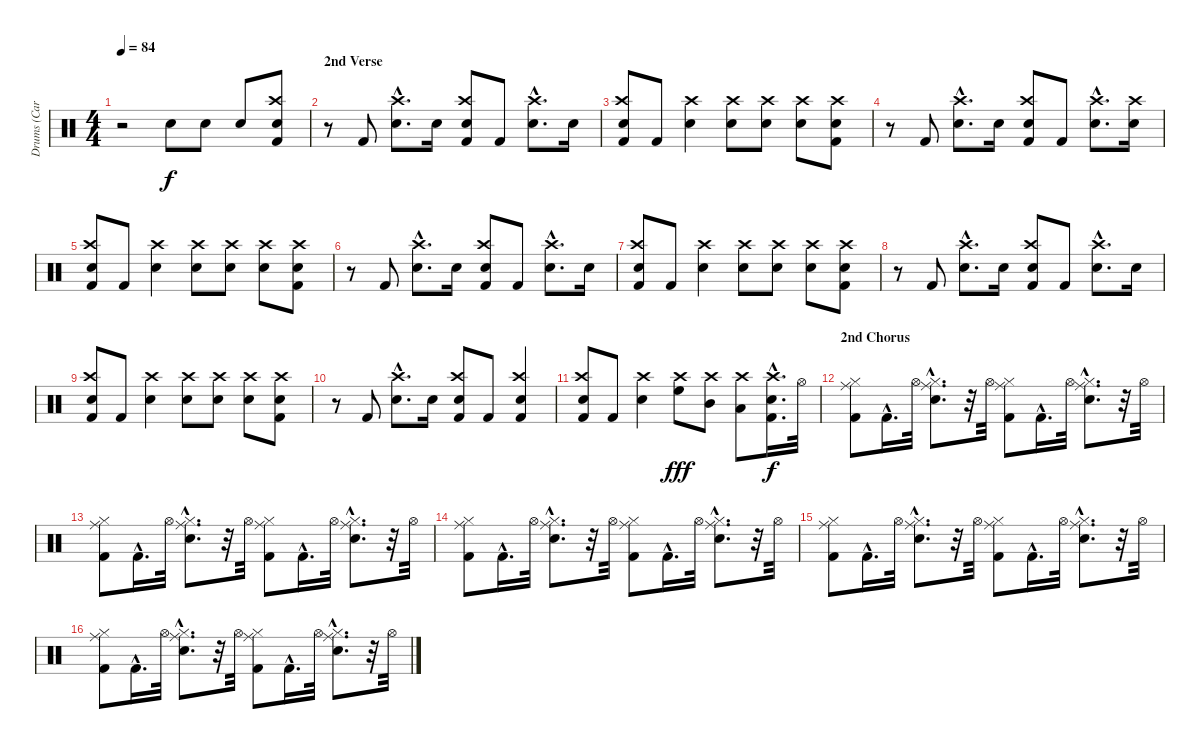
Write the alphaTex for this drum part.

\track ("Drums (Carter Beauford)" "Drums (Car") {instrument percussion}
\staff {score}
\articulation defaults
\ts (4 4)
\tempo 84
\clef neutral
\ks c
r.2{dy f} "Snare (hit) 2".8 "Snare (hit) 2".8 "Snare (hit) 2".8 ("Crash high (hit)" "Snare (hit) 2" "Kick (hit) 2").8 |
\section ("" "2nd Verse")
r.8 "Kick (hit) 2".8 ("Crash high (hit)"{hac} "Snare (hit) 2"{hac}).8{d} "Snare (hit) 2".16 ("Crash high (hit)" "Snare (hit) 2" "Kick (hit) 2").8 "Kick (hit) 2".8 ("Crash high (hit)"{hac} "Snare (hit) 2"{hac}).8{d} "Snare (hit) 2".16 |
("Crash high (hit)" "Snare (hit) 2" "Kick (hit) 2").8 "Kick (hit) 2".8 ("Crash high (hit)" "Snare (hit) 2").4 ("Crash high (hit)" "Snare (hit) 2").8 ("Crash high (hit)" "Snare (hit) 2").8 ("Crash high (hit)" "Snare (hit) 2").8 ("Crash high (hit)" "Snare (hit) 2" "Kick (hit) 2").8 |
r.8 "Kick (hit) 2".8 ("Crash high (hit)"{hac} "Snare (hit) 2"{hac}).8{d} "Snare (hit) 2".16 ("Crash high (hit)" "Snare (hit) 2" "Kick (hit) 2").8 "Kick (hit) 2".8 ("Crash high (hit)"{hac} "Snare (hit) 2"{hac}).8{d} ("Crash high (hit)" "Snare (hit) 2").16 |
("Crash high (hit)" "Snare (hit) 2" "Kick (hit) 2").8 "Kick (hit) 2".8 ("Crash high (hit)" "Snare (hit) 2").4 ("Crash high (hit)" "Snare (hit) 2").8 ("Crash high (hit)" "Snare (hit) 2").8 ("Crash high (hit)" "Snare (hit) 2").8 ("Crash high (hit)" "Snare (hit) 2" "Kick (hit) 2").8 |
r.8 "Kick (hit) 2".8 ("Crash high (hit)"{hac} "Snare (hit) 2"{hac}).8{d} "Snare (hit) 2".16 ("Crash high (hit)" "Snare (hit) 2" "Kick (hit) 2").8 "Kick (hit) 2".8 ("Crash high (hit)"{hac} "Snare (hit) 2"{hac}).8{d} "Snare (hit) 2".16 |
("Crash high (hit)" "Snare (hit) 2" "Kick (hit) 2").8 "Kick (hit) 2".8 ("Crash high (hit)" "Snare (hit) 2").4 ("Crash high (hit)" "Snare (hit) 2").8 ("Crash high (hit)" "Snare (hit) 2").8 ("Crash high (hit)" "Snare (hit) 2").8 ("Crash high (hit)" "Snare (hit) 2" "Kick (hit) 2").8 |
r.8 "Kick (hit) 2".8 ("Crash high (hit)"{hac} "Snare (hit) 2"{hac}).8{d} "Snare (hit) 2".16 ("Crash high (hit)" "Snare (hit) 2" "Kick (hit) 2").8 "Kick (hit) 2".8 ("Crash high (hit)"{hac} "Snare (hit) 2"{hac}).8{d} "Snare (hit) 2".16 |
("Crash high (hit)" "Snare (hit) 2" "Kick (hit) 2").8 "Kick (hit) 2".8 ("Crash high (hit)" "Snare (hit) 2").4 ("Crash high (hit)" "Snare (hit) 2").8 ("Crash high (hit)" "Snare (hit) 2").8 ("Crash high (hit)" "Snare (hit) 2").8 ("Crash high (hit)" "Snare (hit) 2" "Kick (hit) 2").8 |
r.8 "Kick (hit) 2".8 ("Crash high (hit)"{hac} "Snare (hit) 2"{hac}).8{d} "Snare (hit) 2".16 ("Crash high (hit)" "Snare (hit) 2" "Kick (hit) 2").8 "Kick (hit) 2".8 ("Crash high (hit)" "Snare (hit) 2" "Kick (hit) 2").4 |
("Crash high (hit)" "Snare (hit) 2" "Kick (hit) 2").8 "Kick (hit) 2".8 ("Crash high (hit)" "Snare (hit) 2").4 ("Crash high (hit)" "High Floor Tom (hit)").8{dy fff} ("Crash high (hit)" "Mid Tom (hit)").8 ("Crash high (hit)" "Low Tom (hit)").8 ("Crash high (hit)"{hac} "Snare (hit) 2"{hac} "Kick (hit) 2"{hac}).16{d dy f} "Hi-Hat (open)".32 |
\section ("" "2nd Chorus")
("Ride (middle)" "Hi-Hat (closed)" "Kick (hit) 2").8 "Kick (hit) 2"{hac}.16{d} "Hi-Hat (open)".32 ("Ride (middle)"{hac} "Hi-Hat (closed)"{hac} "Snare (hit) 2"{hac}).8{d} r.32 "Hi-Hat (open)".32 ("Ride (middle)" "Hi-Hat (closed)" "Kick (hit) 2").8 "Kick (hit) 2"{hac}.16{d} "Hi-Hat (open)".32 ("Ride (middle)"{hac} "Hi-Hat (closed)"{hac} "Snare (hit) 2"{hac}).8{d} r.32 "Hi-Hat (open)".32 |
("Ride (middle)" "Hi-Hat (closed)" "Kick (hit) 2").8 "Kick (hit) 2"{hac}.16{d} "Hi-Hat (open)".32 ("Ride (middle)"{hac} "Hi-Hat (closed)"{hac} "Snare (hit) 2"{hac}).8{d} r.32 "Hi-Hat (open)".32 ("Ride (middle)" "Hi-Hat (closed)" "Kick (hit) 2").8 "Kick (hit) 2"{hac}.16{d} "Hi-Hat (open)".32 ("Ride (middle)"{hac} "Hi-Hat (closed)"{hac} "Snare (hit) 2"{hac}).8{d} r.32 "Hi-Hat (open)".32 |
("Ride (middle)" "Hi-Hat (closed)" "Kick (hit) 2").8 "Kick (hit) 2"{hac}.16{d} "Hi-Hat (open)".32 ("Ride (middle)"{hac} "Hi-Hat (closed)"{hac} "Snare (hit) 2"{hac}).8{d} r.32 "Hi-Hat (open)".32 ("Ride (middle)" "Hi-Hat (closed)" "Kick (hit) 2").8 "Kick (hit) 2"{hac}.16{d} "Hi-Hat (open)".32 ("Ride (middle)"{hac} "Hi-Hat (closed)"{hac} "Snare (hit) 2"{hac}).8{d} r.32 "Hi-Hat (open)".32 |
("Ride (middle)" "Hi-Hat (closed)" "Kick (hit) 2").8 "Kick (hit) 2"{hac}.16{d} "Hi-Hat (open)".32 ("Ride (middle)"{hac} "Hi-Hat (closed)"{hac} "Snare (hit) 2"{hac}).8{d} r.32 "Hi-Hat (open)".32 ("Ride (middle)" "Hi-Hat (closed)" "Kick (hit) 2").8 "Kick (hit) 2"{hac}.16{d} "Hi-Hat (open)".32 ("Ride (middle)"{hac} "Hi-Hat (closed)"{hac} "Snare (hit) 2"{hac}).8{d} r.32 "Hi-Hat (open)".32 |
("Ride (middle)" "Hi-Hat (closed)" "Kick (hit) 2").8 "Kick (hit) 2"{hac}.16{d} "Hi-Hat (open)".32 ("Ride (middle)"{hac} "Hi-Hat (closed)"{hac} "Snare (hit) 2"{hac}).8{d} r.32 "Hi-Hat (open)".32 ("Ride (middle)" "Hi-Hat (closed)" "Kick (hit) 2").8 "Kick (hit) 2"{hac}.16{d} "Hi-Hat (open)".32 ("Ride (middle)"{hac} "Hi-Hat (closed)"{hac} "Snare (hit) 2"{hac}).8{d} r.32 "Hi-Hat (open)".32
